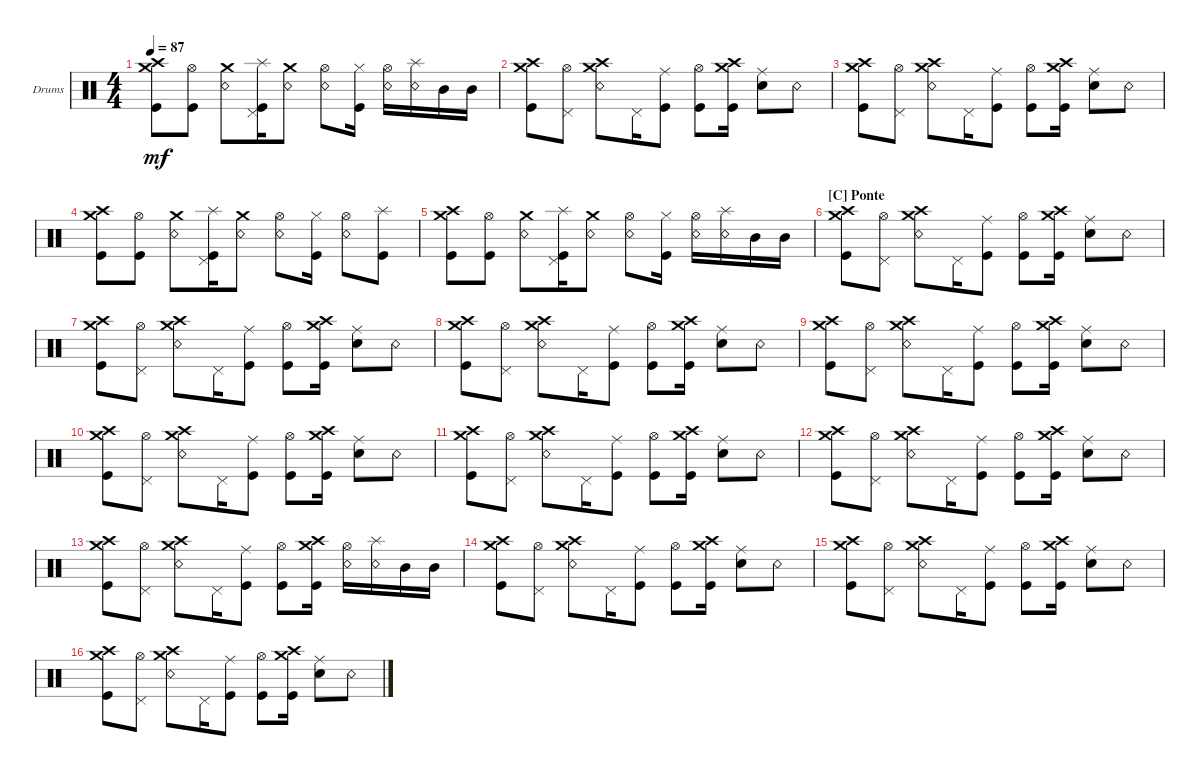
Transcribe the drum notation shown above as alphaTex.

\defaultSystemsLayout 4
\bracketExtendMode groupsimilarinstruments
\firstSystemTrackNameOrientation horizontal
\otherSystemsTrackNameOrientation horizontal
\track ("Drumkit" "Drums") {multiBarRest instrument percussion}
\staff {score}
\articulation defaults
\ts (4 4)
\tempo 87
\clef neutral
\ks c
("Kick (hit)" "Crash high (hit)" "Crash medium (hit)").8{dy mf} ("Kick (hit)" "Hi-Hat (open)").8 ("Snare (rim shot)" "Crash medium (hit)").8 ("Kick (hit)" "Pedal Hi-Hat (hit)" "Splash (hit)").16 ("Snare (rim shot)" "Crash medium (hit)").8 ("Snare (rim shot)" "Hi-Hat (open)").8 ("Kick (hit)" "Hi-Hat (closed)").16 ("Snare (rim shot)" "Hi-Hat (open)").16 ("Splash (hit)" "Snare (rim shot)").16 "Mid Tom (hit)".16 "Mid Tom (hit)".16 |
("Kick (hit)" "Crash high (hit)" "Crash medium (hit)").8 ("Hi-Hat (open)" "Pedal Hi-Hat (hit)").8 ("Snare (rim shot)" "Crash high (hit)" "Crash medium (hit)").8 "Pedal Hi-Hat (hit)".16 ("Ride (middle)" "Kick (hit)").8 ("Kick (hit)" "Hi-Hat (open)").8 ("Kick (hit)" "Crash high (hit)" "Crash medium (hit)").16 ("Ride (middle)" "Snare (hit) 2").8 "Snare (rim shot)".8 |
("Kick (hit)" "Crash high (hit)" "Crash medium (hit)").8 ("Hi-Hat (open)" "Pedal Hi-Hat (hit)").8 ("Snare (rim shot)" "Crash high (hit)" "Crash medium (hit)").8 "Pedal Hi-Hat (hit)".16 ("Ride (middle)" "Kick (hit)").8 ("Kick (hit)" "Hi-Hat (open)").8 ("Kick (hit)" "Crash high (hit)" "Crash medium (hit)").16 ("Ride (middle)" "Snare (hit) 2").8 "Snare (rim shot)".8 |
("Kick (hit)" "Crash high (hit)" "Crash medium (hit)").8 ("Kick (hit)" "Hi-Hat (open)").8 ("Snare (rim shot)" "Crash medium (hit)").8 ("Kick (hit)" "Pedal Hi-Hat (hit)" "Splash (hit)").16 ("Snare (rim shot)" "Crash medium (hit)").8 ("Snare (rim shot)" "Hi-Hat (open)").8 ("Kick (hit)" "Hi-Hat (closed)").16 ("Snare (rim shot)" "Hi-Hat (open)").8 ("Kick (hit)" "Splash (hit)").8 |
("Kick (hit)" "Crash high (hit)" "Crash medium (hit)").8 ("Kick (hit)" "Hi-Hat (open)").8 ("Snare (rim shot)" "Crash medium (hit)").8 ("Kick (hit)" "Pedal Hi-Hat (hit)" "Splash (hit)").16 ("Snare (rim shot)" "Crash medium (hit)").8 ("Snare (rim shot)" "Hi-Hat (open)").8 ("Kick (hit)" "Hi-Hat (closed)").16 ("Snare (rim shot)" "Hi-Hat (open)").16 ("Splash (hit)" "Snare (rim shot)").16 "Mid Tom (hit)".16 "Mid Tom (hit)".16 |
\section ("C" "Ponte")
("Kick (hit)" "Crash high (hit)" "Crash medium (hit)").8 ("Hi-Hat (open)" "Pedal Hi-Hat (hit)").8 ("Snare (rim shot)" "Crash high (hit)" "Crash medium (hit)").8 "Pedal Hi-Hat (hit)".16 ("Ride (middle)" "Kick (hit)").8 ("Kick (hit)" "Hi-Hat (open)").8 ("Kick (hit)" "Crash high (hit)" "Crash medium (hit)").16 ("Ride (middle)" "Snare (hit) 2").8 "Snare (rim shot)".8 |
("Kick (hit)" "Crash high (hit)" "Crash medium (hit)").8 ("Hi-Hat (open)" "Pedal Hi-Hat (hit)").8 ("Snare (rim shot)" "Crash high (hit)" "Crash medium (hit)").8 "Pedal Hi-Hat (hit)".16 ("Ride (middle)" "Kick (hit)").8 ("Kick (hit)" "Hi-Hat (open)").8 ("Kick (hit)" "Crash high (hit)" "Crash medium (hit)").16 ("Ride (middle)" "Snare (hit) 2").8 "Snare (rim shot)".8 |
("Kick (hit)" "Crash high (hit)" "Crash medium (hit)").8 ("Hi-Hat (open)" "Pedal Hi-Hat (hit)").8 ("Snare (rim shot)" "Crash high (hit)" "Crash medium (hit)").8 "Pedal Hi-Hat (hit)".16 ("Ride (middle)" "Kick (hit)").8 ("Kick (hit)" "Hi-Hat (open)").8 ("Kick (hit)" "Crash high (hit)" "Crash medium (hit)").16 ("Ride (middle)" "Snare (hit) 2").8 "Snare (rim shot)".8 |
("Kick (hit)" "Crash high (hit)" "Crash medium (hit)").8 ("Hi-Hat (open)" "Pedal Hi-Hat (hit)").8 ("Snare (rim shot)" "Crash high (hit)" "Crash medium (hit)").8 "Pedal Hi-Hat (hit)".16 ("Ride (middle)" "Kick (hit)").8 ("Kick (hit)" "Hi-Hat (open)").8 ("Kick (hit)" "Crash high (hit)" "Crash medium (hit)").16 ("Ride (middle)" "Snare (hit) 2").8 "Snare (rim shot)".8 |
("Kick (hit)" "Crash high (hit)" "Crash medium (hit)").8 ("Hi-Hat (open)" "Pedal Hi-Hat (hit)").8 ("Snare (rim shot)" "Crash high (hit)" "Crash medium (hit)").8 "Pedal Hi-Hat (hit)".16 ("Ride (middle)" "Kick (hit)").8 ("Kick (hit)" "Hi-Hat (open)").8 ("Kick (hit)" "Crash high (hit)" "Crash medium (hit)").16 ("Ride (middle)" "Snare (hit) 2").8 "Snare (rim shot)".8 |
("Kick (hit)" "Crash high (hit)" "Crash medium (hit)").8 ("Hi-Hat (open)" "Pedal Hi-Hat (hit)").8 ("Snare (rim shot)" "Crash high (hit)" "Crash medium (hit)").8 "Pedal Hi-Hat (hit)".16 ("Ride (middle)" "Kick (hit)").8 ("Kick (hit)" "Hi-Hat (open)").8 ("Kick (hit)" "Crash high (hit)" "Crash medium (hit)").16 ("Ride (middle)" "Snare (hit) 2").8 "Snare (rim shot)".8 |
("Kick (hit)" "Crash high (hit)" "Crash medium (hit)").8 ("Hi-Hat (open)" "Pedal Hi-Hat (hit)").8 ("Snare (rim shot)" "Crash high (hit)" "Crash medium (hit)").8 "Pedal Hi-Hat (hit)".16 ("Ride (middle)" "Kick (hit)").8 ("Kick (hit)" "Hi-Hat (open)").8 ("Kick (hit)" "Crash high (hit)" "Crash medium (hit)").16 ("Ride (middle)" "Snare (hit) 2").8 "Snare (rim shot)".8 |
("Kick (hit)" "Crash high (hit)" "Crash medium (hit)").8 ("Hi-Hat (open)" "Pedal Hi-Hat (hit)").8 ("Snare (rim shot)" "Crash high (hit)" "Crash medium (hit)").8 "Pedal Hi-Hat (hit)".16 ("Ride (middle)" "Kick (hit)").8 ("Kick (hit)" "Hi-Hat (open)").8 ("Kick (hit)" "Crash high (hit)" "Crash medium (hit)").16 ("Snare (rim shot)" "Hi-Hat (open)").16 ("Splash (hit)" "Snare (rim shot)").16 "Mid Tom (hit)".16 "Mid Tom (hit)".16 |
("Kick (hit)" "Crash high (hit)" "Crash medium (hit)").8 ("Hi-Hat (open)" "Pedal Hi-Hat (hit)").8 ("Snare (rim shot)" "Crash high (hit)" "Crash medium (hit)").8 "Pedal Hi-Hat (hit)".16 ("Ride (middle)" "Kick (hit)").8 ("Kick (hit)" "Hi-Hat (open)").8 ("Kick (hit)" "Crash high (hit)" "Crash medium (hit)").16 ("Ride (middle)" "Snare (hit) 2").8 "Snare (rim shot)".8 |
("Kick (hit)" "Crash high (hit)" "Crash medium (hit)").8 ("Hi-Hat (open)" "Pedal Hi-Hat (hit)").8 ("Snare (rim shot)" "Crash high (hit)" "Crash medium (hit)").8 "Pedal Hi-Hat (hit)".16 ("Ride (middle)" "Kick (hit)").8 ("Kick (hit)" "Hi-Hat (open)").8 ("Kick (hit)" "Crash high (hit)" "Crash medium (hit)").16 ("Ride (middle)" "Snare (hit) 2").8 "Snare (rim shot)".8 |
("Kick (hit)" "Crash high (hit)" "Crash medium (hit)").8 ("Hi-Hat (open)" "Pedal Hi-Hat (hit)").8 ("Snare (rim shot)" "Crash high (hit)" "Crash medium (hit)").8 "Pedal Hi-Hat (hit)".16 ("Ride (middle)" "Kick (hit)").8 ("Kick (hit)" "Hi-Hat (open)").8 ("Kick (hit)" "Crash high (hit)" "Crash medium (hit)").16 ("Ride (middle)" "Snare (hit) 2").8 "Snare (rim shot)".8
